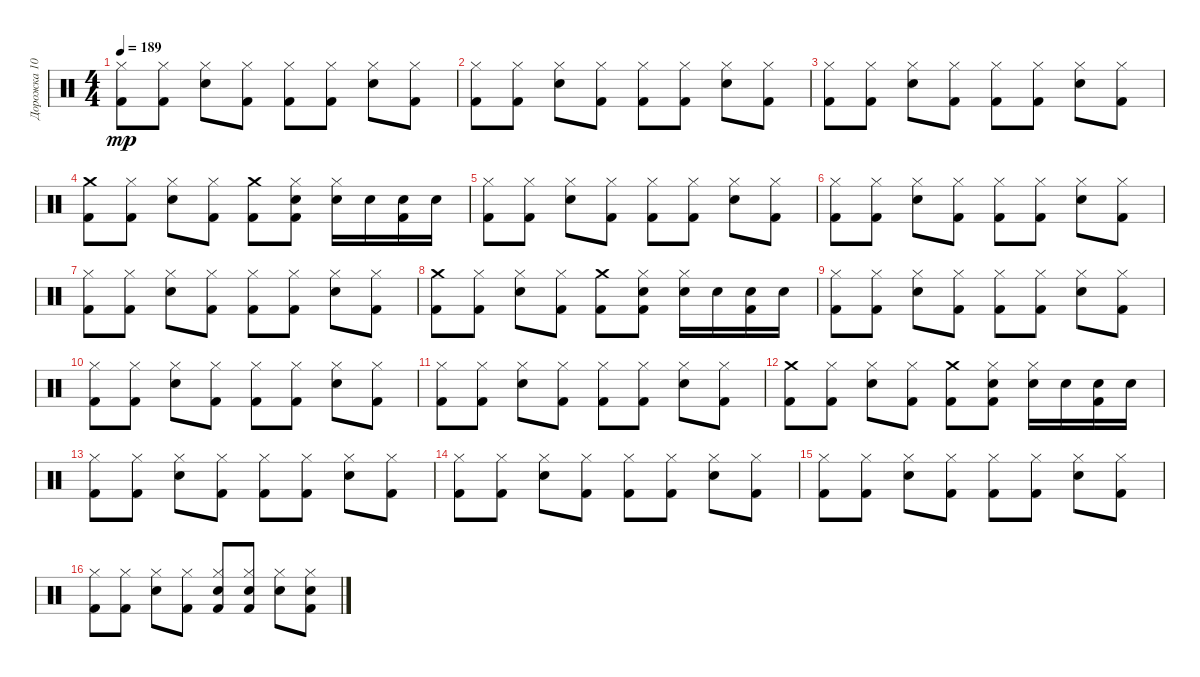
\track ("Дорожка 10" "Дорожка 10") {instrument percussion}
\staff {score}
\articulation defaults
\ts (4 4)
\tempo 189
\clef neutral
\ks c
("Kick (hit) 2" "Hi-Hat (closed)").8{dy mp} ("Kick (hit) 2" "Hi-Hat (closed)").8 ("Snare (hit) 2" "Hi-Hat (closed)").8 ("Kick (hit) 2" "Hi-Hat (closed)").8 ("Kick (hit) 2" "Hi-Hat (closed)").8 ("Kick (hit) 2" "Hi-Hat (closed)").8 ("Snare (hit) 2" "Hi-Hat (closed)").8 ("Kick (hit) 2" "Hi-Hat (closed)").8 |
("Kick (hit) 2" "Hi-Hat (closed)").8 ("Kick (hit) 2" "Hi-Hat (closed)").8 ("Snare (hit) 2" "Hi-Hat (closed)").8 ("Kick (hit) 2" "Hi-Hat (closed)").8 ("Kick (hit) 2" "Hi-Hat (closed)").8 ("Kick (hit) 2" "Hi-Hat (closed)").8 ("Snare (hit) 2" "Hi-Hat (closed)").8 ("Kick (hit) 2" "Hi-Hat (closed)").8 |
("Kick (hit) 2" "Hi-Hat (closed)").8 ("Kick (hit) 2" "Hi-Hat (closed)").8 ("Snare (hit) 2" "Hi-Hat (closed)").8 ("Kick (hit) 2" "Hi-Hat (closed)").8 ("Kick (hit) 2" "Hi-Hat (closed)").8 ("Kick (hit) 2" "Hi-Hat (closed)").8 ("Snare (hit) 2" "Hi-Hat (closed)").8 ("Kick (hit) 2" "Hi-Hat (closed)").8 |
("Kick (hit) 2" "Crash medium (hit)").8 ("Kick (hit) 2" "Hi-Hat (closed)").8 ("Snare (hit) 2" "Hi-Hat (closed)").8 ("Kick (hit) 2" "Hi-Hat (closed)").8 ("Kick (hit) 2" "Crash medium (hit)").8 ("Kick (hit) 2" "Snare (hit) 2" "Hi-Hat (closed)").8 ("Snare (hit) 2" "Hi-Hat (closed)").16 "Snare (hit) 2".16 ("Kick (hit) 2" "Snare (hit) 2").16 "Snare (hit) 2".16 |
("Kick (hit) 2" "Hi-Hat (closed)").8 ("Kick (hit) 2" "Hi-Hat (closed)").8 ("Snare (hit) 2" "Hi-Hat (closed)").8 ("Kick (hit) 2" "Hi-Hat (closed)").8 ("Kick (hit) 2" "Hi-Hat (closed)").8 ("Kick (hit) 2" "Hi-Hat (closed)").8 ("Snare (hit) 2" "Hi-Hat (closed)").8 ("Kick (hit) 2" "Hi-Hat (closed)").8 |
("Kick (hit) 2" "Hi-Hat (closed)").8 ("Kick (hit) 2" "Hi-Hat (closed)").8 ("Snare (hit) 2" "Hi-Hat (closed)").8 ("Kick (hit) 2" "Hi-Hat (closed)").8 ("Kick (hit) 2" "Hi-Hat (closed)").8 ("Kick (hit) 2" "Hi-Hat (closed)").8 ("Snare (hit) 2" "Hi-Hat (closed)").8 ("Kick (hit) 2" "Hi-Hat (closed)").8 |
("Kick (hit) 2" "Hi-Hat (closed)").8 ("Kick (hit) 2" "Hi-Hat (closed)").8 ("Snare (hit) 2" "Hi-Hat (closed)").8 ("Kick (hit) 2" "Hi-Hat (closed)").8 ("Kick (hit) 2" "Hi-Hat (closed)").8 ("Kick (hit) 2" "Hi-Hat (closed)").8 ("Snare (hit) 2" "Hi-Hat (closed)").8 ("Kick (hit) 2" "Hi-Hat (closed)").8 |
("Kick (hit) 2" "Crash medium (hit)").8 ("Kick (hit) 2" "Hi-Hat (closed)").8 ("Snare (hit) 2" "Hi-Hat (closed)").8 ("Kick (hit) 2" "Hi-Hat (closed)").8 ("Kick (hit) 2" "Crash medium (hit)").8 ("Kick (hit) 2" "Snare (hit) 2" "Hi-Hat (closed)").8 ("Snare (hit) 2" "Hi-Hat (closed)").16 "Snare (hit) 2".16 ("Kick (hit) 2" "Snare (hit) 2").16 "Snare (hit) 2".16 |
("Kick (hit) 2" "Hi-Hat (closed)").8 ("Kick (hit) 2" "Hi-Hat (closed)").8 ("Snare (hit) 2" "Hi-Hat (closed)").8 ("Kick (hit) 2" "Hi-Hat (closed)").8 ("Kick (hit) 2" "Hi-Hat (closed)").8 ("Kick (hit) 2" "Hi-Hat (closed)").8 ("Snare (hit) 2" "Hi-Hat (closed)").8 ("Kick (hit) 2" "Hi-Hat (closed)").8 |
("Kick (hit) 2" "Hi-Hat (closed)").8 ("Kick (hit) 2" "Hi-Hat (closed)").8 ("Snare (hit) 2" "Hi-Hat (closed)").8 ("Kick (hit) 2" "Hi-Hat (closed)").8 ("Kick (hit) 2" "Hi-Hat (closed)").8 ("Kick (hit) 2" "Hi-Hat (closed)").8 ("Snare (hit) 2" "Hi-Hat (closed)").8 ("Kick (hit) 2" "Hi-Hat (closed)").8 |
("Kick (hit) 2" "Hi-Hat (closed)").8 ("Kick (hit) 2" "Hi-Hat (closed)").8 ("Snare (hit) 2" "Hi-Hat (closed)").8 ("Kick (hit) 2" "Hi-Hat (closed)").8 ("Kick (hit) 2" "Hi-Hat (closed)").8 ("Kick (hit) 2" "Hi-Hat (closed)").8 ("Snare (hit) 2" "Hi-Hat (closed)").8 ("Kick (hit) 2" "Hi-Hat (closed)").8 |
("Kick (hit) 2" "Crash medium (hit)").8 ("Kick (hit) 2" "Hi-Hat (closed)").8 ("Snare (hit) 2" "Hi-Hat (closed)").8 ("Kick (hit) 2" "Hi-Hat (closed)").8 ("Kick (hit) 2" "Crash medium (hit)").8 ("Kick (hit) 2" "Snare (hit) 2" "Hi-Hat (closed)").8 ("Snare (hit) 2" "Hi-Hat (closed)").16 "Snare (hit) 2".16 ("Kick (hit) 2" "Snare (hit) 2").16 "Snare (hit) 2".16 |
("Kick (hit) 2" "Hi-Hat (closed)").8 ("Kick (hit) 2" "Hi-Hat (closed)").8 ("Snare (hit) 2" "Hi-Hat (closed)").8 ("Kick (hit) 2" "Hi-Hat (closed)").8 ("Kick (hit) 2" "Hi-Hat (closed)").8 ("Kick (hit) 2" "Hi-Hat (closed)").8 ("Snare (hit) 2" "Hi-Hat (closed)").8 ("Kick (hit) 2" "Hi-Hat (closed)").8 |
("Kick (hit) 2" "Hi-Hat (closed)").8 ("Kick (hit) 2" "Hi-Hat (closed)").8 ("Snare (hit) 2" "Hi-Hat (closed)").8 ("Kick (hit) 2" "Hi-Hat (closed)").8 ("Kick (hit) 2" "Hi-Hat (closed)").8 ("Kick (hit) 2" "Hi-Hat (closed)").8 ("Snare (hit) 2" "Hi-Hat (closed)").8 ("Kick (hit) 2" "Hi-Hat (closed)").8 |
("Kick (hit) 2" "Hi-Hat (closed)").8 ("Kick (hit) 2" "Hi-Hat (closed)").8 ("Snare (hit) 2" "Hi-Hat (closed)").8 ("Kick (hit) 2" "Hi-Hat (closed)").8 ("Kick (hit) 2" "Hi-Hat (closed)").8 ("Kick (hit) 2" "Hi-Hat (closed)").8 ("Snare (hit) 2" "Hi-Hat (closed)").8 ("Kick (hit) 2" "Hi-Hat (closed)").8 |
("Kick (hit) 2" "Hi-Hat (closed)").8 ("Kick (hit) 2" "Hi-Hat (closed)").8 ("Snare (hit) 2" "Hi-Hat (closed)").8 ("Kick (hit) 2" "Hi-Hat (closed)").8 ("Kick (hit) 2" "Snare (hit) 2" "Hi-Hat (closed)").8 ("Kick (hit) 2" "Snare (hit) 2" "Hi-Hat (closed)").8 ("Snare (hit) 2" "Hi-Hat (closed)").8 ("Kick (hit) 2" "Snare (hit) 2" "Hi-Hat (closed)").8
